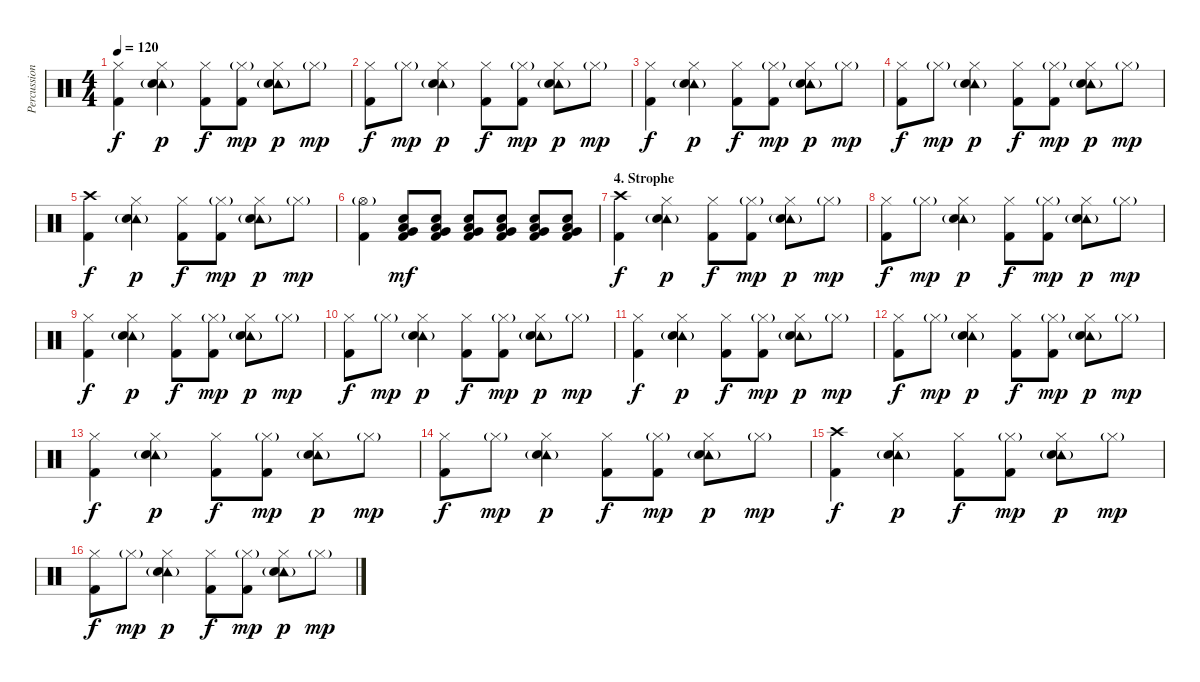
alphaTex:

\track ("Percussion     E" "Percussion") {instrument percussion}
\staff {score}
\articulation defaults
\ts (4 4)
\tempo 120
\clef neutral
\ks c
("Hi-Hat (closed)" "Kick (hit) 2").4{dy f} ("Hi-Hat (closed)" "Tambourine (hit)"{g} "Electric Snare (hit)").4{dy p} ("Hi-Hat (closed)" "Kick (hit) 2").8{dy f} ("Hi-Hat (closed)"{g} "Kick (hit) 2").8{dy mp} ("Hi-Hat (closed)" "Tambourine (hit)"{g} "Electric Snare (hit)").8{dy p} "Hi-Hat (closed)"{g}.8{dy mp} |
("Hi-Hat (closed)" "Kick (hit) 2").8{dy f} "Hi-Hat (closed)"{g}.8{dy mp} ("Hi-Hat (closed)" "Tambourine (hit)"{g} "Electric Snare (hit)").4{dy p} ("Hi-Hat (closed)" "Kick (hit) 2").8{dy f} ("Hi-Hat (closed)"{g} "Kick (hit) 2").8{dy mp} ("Hi-Hat (closed)" "Tambourine (hit)"{g} "Electric Snare (hit)").8{dy p} "Hi-Hat (closed)"{g}.8{dy mp} |
("Hi-Hat (closed)" "Kick (hit) 2").4{dy f} ("Hi-Hat (closed)" "Tambourine (hit)"{g} "Electric Snare (hit)").4{dy p} ("Hi-Hat (closed)" "Kick (hit) 2").8{dy f} ("Hi-Hat (closed)"{g} "Kick (hit) 2").8{dy mp} ("Hi-Hat (closed)" "Tambourine (hit)"{g} "Electric Snare (hit)").8{dy p} "Hi-Hat (closed)"{g}.8{dy mp} |
("Hi-Hat (closed)" "Kick (hit) 2").8{dy f} "Hi-Hat (closed)"{g}.8{dy mp} ("Hi-Hat (closed)" "Tambourine (hit)"{g} "Electric Snare (hit)").4{dy p} ("Hi-Hat (closed)" "Kick (hit) 2").8{dy f} ("Hi-Hat (closed)"{g} "Kick (hit) 2").8{dy mp} ("Hi-Hat (closed)" "Tambourine (hit)"{g} "Electric Snare (hit)").8{dy p} "Hi-Hat (closed)"{g}.8{dy mp} |
("Crash high (hit)" "Kick (hit) 2").4{dy f} ("Hi-Hat (closed)" "Tambourine (hit)"{g} "Electric Snare (hit)").4{dy p} ("Hi-Hat (closed)" "Kick (hit) 2").8{dy f} ("Hi-Hat (closed)"{g} "Kick (hit) 2").8{dy mp} ("Hi-Hat (closed)" "Tambourine (hit)"{g} "Electric Snare (hit)").8{dy p} "Hi-Hat (closed)"{g}.8{dy mp} |
("Hi-Hat (open)"{g} "Kick (hit) 2").4 ("Electric Snare (hit)" "Very Low Tom (hit)" "Low Floor Tom (hit)" "Kick (hit) 2").8{dy mf} ("Electric Snare (hit)" "Very Low Tom (hit)" "Low Floor Tom (hit)" "Kick (hit) 2").8 ("Electric Snare (hit)" "Very Low Tom (hit)" "Low Floor Tom (hit)" "Kick (hit) 2").8 ("Electric Snare (hit)" "Very Low Tom (hit)" "Low Floor Tom (hit)" "Kick (hit) 2").8 ("Electric Snare (hit)" "Very Low Tom (hit)" "Low Floor Tom (hit)" "Kick (hit) 2").8 ("Electric Snare (hit)" "Very Low Tom (hit)" "Low Floor Tom (hit)" "Kick (hit) 2").8 |
\section ("" "4. Strophe")
("Crash high (hit)" "Kick (hit) 2").4{dy f} ("Hi-Hat (closed)" "Tambourine (hit)"{g} "Electric Snare (hit)").4{dy p} ("Hi-Hat (closed)" "Kick (hit) 2").8{dy f} ("Hi-Hat (closed)"{g} "Kick (hit) 2").8{dy mp} ("Hi-Hat (closed)" "Tambourine (hit)"{g} "Electric Snare (hit)").8{dy p} "Hi-Hat (closed)"{g}.8{dy mp} |
("Hi-Hat (closed)" "Kick (hit) 2").8{dy f} "Hi-Hat (closed)"{g}.8{dy mp} ("Hi-Hat (closed)" "Tambourine (hit)"{g} "Electric Snare (hit)").4{dy p} ("Hi-Hat (closed)" "Kick (hit) 2").8{dy f} ("Hi-Hat (closed)"{g} "Kick (hit) 2").8{dy mp} ("Hi-Hat (closed)" "Tambourine (hit)"{g} "Electric Snare (hit)").8{dy p} "Hi-Hat (closed)"{g}.8{dy mp} |
("Hi-Hat (closed)" "Kick (hit) 2").4{dy f} ("Hi-Hat (closed)" "Tambourine (hit)"{g} "Electric Snare (hit)").4{dy p} ("Hi-Hat (closed)" "Kick (hit) 2").8{dy f} ("Hi-Hat (closed)"{g} "Kick (hit) 2").8{dy mp} ("Hi-Hat (closed)" "Tambourine (hit)"{g} "Electric Snare (hit)").8{dy p} "Hi-Hat (closed)"{g}.8{dy mp} |
("Hi-Hat (closed)" "Kick (hit) 2").8{dy f} "Hi-Hat (closed)"{g}.8{dy mp} ("Hi-Hat (closed)" "Tambourine (hit)"{g} "Electric Snare (hit)").4{dy p} ("Hi-Hat (closed)" "Kick (hit) 2").8{dy f} ("Hi-Hat (closed)"{g} "Kick (hit) 2").8{dy mp} ("Hi-Hat (closed)" "Tambourine (hit)"{g} "Electric Snare (hit)").8{dy p} "Hi-Hat (closed)"{g}.8{dy mp} |
("Hi-Hat (closed)" "Kick (hit) 2").4{dy f} ("Hi-Hat (closed)" "Tambourine (hit)"{g} "Electric Snare (hit)").4{dy p} ("Hi-Hat (closed)" "Kick (hit) 2").8{dy f} ("Hi-Hat (closed)"{g} "Kick (hit) 2").8{dy mp} ("Hi-Hat (closed)" "Tambourine (hit)"{g} "Electric Snare (hit)").8{dy p} "Hi-Hat (closed)"{g}.8{dy mp} |
("Hi-Hat (closed)" "Kick (hit) 2").8{dy f} "Hi-Hat (closed)"{g}.8{dy mp} ("Hi-Hat (closed)" "Tambourine (hit)"{g} "Electric Snare (hit)").4{dy p} ("Hi-Hat (closed)" "Kick (hit) 2").8{dy f} ("Hi-Hat (closed)"{g} "Kick (hit) 2").8{dy mp} ("Hi-Hat (closed)" "Tambourine (hit)"{g} "Electric Snare (hit)").8{dy p} "Hi-Hat (closed)"{g}.8{dy mp} |
("Hi-Hat (closed)" "Kick (hit) 2").4{dy f} ("Hi-Hat (closed)" "Tambourine (hit)"{g} "Electric Snare (hit)").4{dy p} ("Hi-Hat (closed)" "Kick (hit) 2").8{dy f} ("Hi-Hat (closed)"{g} "Kick (hit) 2").8{dy mp} ("Hi-Hat (closed)" "Tambourine (hit)"{g} "Electric Snare (hit)").8{dy p} "Hi-Hat (closed)"{g}.8{dy mp} |
("Hi-Hat (closed)" "Kick (hit) 2").8{dy f} "Hi-Hat (closed)"{g}.8{dy mp} ("Hi-Hat (closed)" "Tambourine (hit)"{g} "Electric Snare (hit)").4{dy p} ("Hi-Hat (closed)" "Kick (hit) 2").8{dy f} ("Hi-Hat (closed)"{g} "Kick (hit) 2").8{dy mp} ("Hi-Hat (closed)" "Tambourine (hit)"{g} "Electric Snare (hit)").8{dy p} "Hi-Hat (closed)"{g}.8{dy mp} |
("Crash high (hit)" "Kick (hit) 2").4{dy f} ("Hi-Hat (closed)" "Tambourine (hit)"{g} "Electric Snare (hit)").4{dy p} ("Hi-Hat (closed)" "Kick (hit) 2").8{dy f} ("Hi-Hat (closed)"{g} "Kick (hit) 2").8{dy mp} ("Hi-Hat (closed)" "Tambourine (hit)"{g} "Electric Snare (hit)").8{dy p} "Hi-Hat (closed)"{g}.8{dy mp} |
("Hi-Hat (closed)" "Kick (hit) 2").8{dy f} "Hi-Hat (closed)"{g}.8{dy mp} ("Hi-Hat (closed)" "Tambourine (hit)"{g} "Electric Snare (hit)").4{dy p} ("Hi-Hat (closed)" "Kick (hit) 2").8{dy f} ("Hi-Hat (closed)"{g} "Kick (hit) 2").8{dy mp} ("Hi-Hat (closed)" "Tambourine (hit)"{g} "Electric Snare (hit)").8{dy p} "Hi-Hat (closed)"{g}.8{dy mp}
